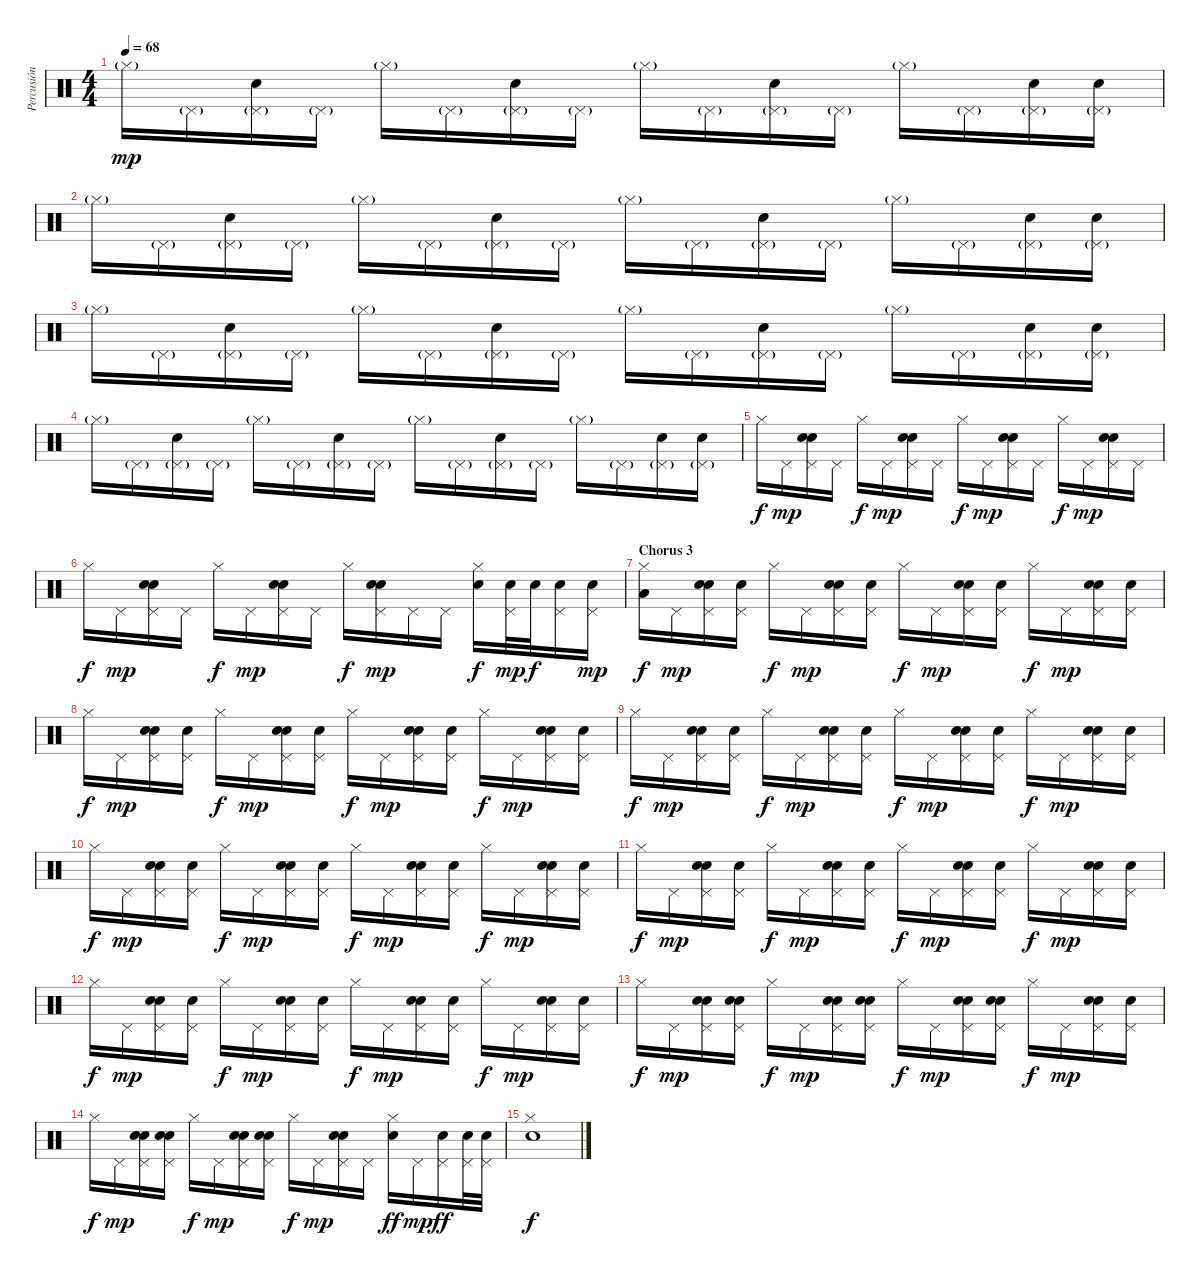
\track ("Percusión" "Percusión") {instrument percussion}
\staff {score}
\articulation defaults
\ts (4 4)
\tempo 68
\clef neutral
\ks c "Hi-Hat (closed)"{g}.16{dy mp} "Pedal Hi-Hat (hit)"{g}.16
("Pedal Hi-Hat (hit)"{g} "Electric Snare (hit)").16 "Pedal Hi-Hat (hit)"{g}.16 "Hi-Hat (closed)"{g}.16 "Pedal Hi-Hat (hit)"{g}.16 ("Pedal Hi-Hat (hit)"{g} "Electric Snare (hit)").16 "Pedal Hi-Hat (hit)"{g}.16 "Hi-Hat (closed)"{g}.16 "Pedal Hi-Hat (hit)"{g}.16 ("Pedal Hi-Hat (hit)"{g} "Electric Snare (hit)").16 "Pedal Hi-Hat (hit)"{g}.16 "Hi-Hat (closed)"{g}.16 "Pedal Hi-Hat (hit)"{g}.16 ("Pedal Hi-Hat (hit)"{g} "Electric Snare (hit)").16 ("Pedal Hi-Hat (hit)"{g} "Electric Snare (hit)").16 |
"Hi-Hat (closed)"{g}.16 "Pedal Hi-Hat (hit)"{g}.16 ("Pedal Hi-Hat (hit)"{g} "Electric Snare (hit)").16 "Pedal Hi-Hat (hit)"{g}.16 "Hi-Hat (closed)"{g}.16 "Pedal Hi-Hat (hit)"{g}.16 ("Pedal Hi-Hat (hit)"{g} "Electric Snare (hit)").16 "Pedal Hi-Hat (hit)"{g}.16 "Hi-Hat (closed)"{g}.16 "Pedal Hi-Hat (hit)"{g}.16 ("Pedal Hi-Hat (hit)"{g} "Electric Snare (hit)").16 "Pedal Hi-Hat (hit)"{g}.16 "Hi-Hat (closed)"{g}.16 "Pedal Hi-Hat (hit)"{g}.16 ("Pedal Hi-Hat (hit)"{g} "Electric Snare (hit)").16 ("Pedal Hi-Hat (hit)"{g} "Electric Snare (hit)").16 |
"Hi-Hat (closed)"{g}.16 "Pedal Hi-Hat (hit)"{g}.16 ("Pedal Hi-Hat (hit)"{g} "Electric Snare (hit)").16 "Pedal Hi-Hat (hit)"{g}.16 "Hi-Hat (closed)"{g}.16 "Pedal Hi-Hat (hit)"{g}.16 ("Pedal Hi-Hat (hit)"{g} "Electric Snare (hit)").16 "Pedal Hi-Hat (hit)"{g}.16 "Hi-Hat (closed)"{g}.16 "Pedal Hi-Hat (hit)"{g}.16 ("Pedal Hi-Hat (hit)"{g} "Electric Snare (hit)").16 "Pedal Hi-Hat (hit)"{g}.16 "Hi-Hat (closed)"{g}.16 "Pedal Hi-Hat (hit)"{g}.16 ("Pedal Hi-Hat (hit)"{g} "Electric Snare (hit)").16 ("Pedal Hi-Hat (hit)"{g} "Electric Snare (hit)").16 |
"Hi-Hat (closed)"{g}.16 "Pedal Hi-Hat (hit)"{g}.16 ("Pedal Hi-Hat (hit)"{g} "Electric Snare (hit)").16 "Pedal Hi-Hat (hit)"{g}.16 "Hi-Hat (closed)"{g}.16 "Pedal Hi-Hat (hit)"{g}.16 ("Pedal Hi-Hat (hit)"{g} "Electric Snare (hit)").16 "Pedal Hi-Hat (hit)"{g}.16 "Hi-Hat (closed)"{g}.16 "Pedal Hi-Hat (hit)"{g}.16 ("Pedal Hi-Hat (hit)"{g} "Electric Snare (hit)").16 "Pedal Hi-Hat (hit)"{g}.16 "Hi-Hat (closed)"{g}.16 "Pedal Hi-Hat (hit)"{g}.16 ("Pedal Hi-Hat (hit)"{g} "Electric Snare (hit)").16 ("Pedal Hi-Hat (hit)"{g} "Electric Snare (hit)").16 |
"Hi-Hat (closed)".16{dy f} "Pedal Hi-Hat (hit)".16{dy mp} ("Pedal Hi-Hat (hit)" "Electric Snare (hit)" "Hand Clap (hit)").16 "Pedal Hi-Hat (hit)".16 "Hi-Hat (closed)".16{dy f} "Pedal Hi-Hat (hit)".16{dy mp} ("Pedal Hi-Hat (hit)" "Electric Snare (hit)" "Hand Clap (hit)").16 "Pedal Hi-Hat (hit)".16 "Hi-Hat (closed)".16{dy f} "Pedal Hi-Hat (hit)".16{dy mp} ("Pedal Hi-Hat (hit)" "Electric Snare (hit)" "Hand Clap (hit)").16 "Pedal Hi-Hat (hit)".16 "Hi-Hat (closed)".16{dy f} "Pedal Hi-Hat (hit)".16{dy mp} ("Pedal Hi-Hat (hit)" "Electric Snare (hit)" "Hand Clap (hit)").16 "Pedal Hi-Hat (hit)".16 |
"Hi-Hat (closed)".16{dy f} "Pedal Hi-Hat (hit)".16{dy mp} ("Pedal Hi-Hat (hit)" "Electric Snare (hit)" "Hand Clap (hit)").16 "Pedal Hi-Hat (hit)".16 "Hi-Hat (closed)".16{dy f} "Pedal Hi-Hat (hit)".16{dy mp} ("Pedal Hi-Hat (hit)" "Electric Snare (hit)" "Hand Clap (hit)").16 "Pedal Hi-Hat (hit)".16 "Hi-Hat (closed)".16{dy f} ("Pedal Hi-Hat (hit)" "Electric Snare (hit)" "Hand Clap (hit)").16{dy mp} "Pedal Hi-Hat (hit)".16 "Pedal Hi-Hat (hit)".16 ("Hi-Hat (closed)" "Electric Snare (hit)").16{dy f} ("Pedal Hi-Hat (hit)" "Electric Snare (hit)").32{dy mp} "Electric Snare (hit)".32{dy f} ("Pedal Hi-Hat (hit)" "Electric Snare (hit)").16 ("Pedal Hi-Hat (hit)" "Electric Snare (hit)").16{dy mp} |
\section ("" "Chorus 3")
("Hi-Hat (closed)" "Low Tom (hit)").16{dy f} "Pedal Hi-Hat (hit)".16{dy mp} ("Pedal Hi-Hat (hit)" "Electric Snare (hit)" "Hand Clap (hit)").16 ("Pedal Hi-Hat (hit)" "Hand Clap (hit)").16 "Hi-Hat (closed)".16{dy f} "Pedal Hi-Hat (hit)".16{dy mp} ("Pedal Hi-Hat (hit)" "Electric Snare (hit)" "Hand Clap (hit)").16 ("Pedal Hi-Hat (hit)" "Hand Clap (hit)").16 "Hi-Hat (closed)".16{dy f} "Pedal Hi-Hat (hit)".16{dy mp} ("Pedal Hi-Hat (hit)" "Electric Snare (hit)" "Hand Clap (hit)").16 ("Pedal Hi-Hat (hit)" "Hand Clap (hit)").16 "Hi-Hat (closed)".16{dy f} "Pedal Hi-Hat (hit)".16{dy mp} ("Pedal Hi-Hat (hit)" "Electric Snare (hit)" "Hand Clap (hit)").16 ("Pedal Hi-Hat (hit)" "Electric Snare (hit)").16 |
"Hi-Hat (closed)".16{dy f} "Pedal Hi-Hat (hit)".16{dy mp} ("Pedal Hi-Hat (hit)" "Electric Snare (hit)" "Hand Clap (hit)").16 ("Pedal Hi-Hat (hit)" "Hand Clap (hit)").16 "Hi-Hat (closed)".16{dy f} "Pedal Hi-Hat (hit)".16{dy mp} ("Pedal Hi-Hat (hit)" "Electric Snare (hit)" "Hand Clap (hit)").16 ("Pedal Hi-Hat (hit)" "Hand Clap (hit)").16 "Hi-Hat (closed)".16{dy f} "Pedal Hi-Hat (hit)".16{dy mp} ("Pedal Hi-Hat (hit)" "Electric Snare (hit)" "Hand Clap (hit)").16 ("Pedal Hi-Hat (hit)" "Hand Clap (hit)").16 "Hi-Hat (closed)".16{dy f} "Pedal Hi-Hat (hit)".16{dy mp} ("Pedal Hi-Hat (hit)" "Electric Snare (hit)" "Hand Clap (hit)").16 ("Pedal Hi-Hat (hit)" "Electric Snare (hit)").16 |
"Hi-Hat (closed)".16{dy f} "Pedal Hi-Hat (hit)".16{dy mp} ("Pedal Hi-Hat (hit)" "Electric Snare (hit)" "Hand Clap (hit)").16 ("Pedal Hi-Hat (hit)" "Hand Clap (hit)").16 "Hi-Hat (closed)".16{dy f} "Pedal Hi-Hat (hit)".16{dy mp} ("Pedal Hi-Hat (hit)" "Electric Snare (hit)" "Hand Clap (hit)").16 ("Pedal Hi-Hat (hit)" "Hand Clap (hit)").16 "Hi-Hat (closed)".16{dy f} "Pedal Hi-Hat (hit)".16{dy mp} ("Pedal Hi-Hat (hit)" "Electric Snare (hit)" "Hand Clap (hit)").16 ("Pedal Hi-Hat (hit)" "Hand Clap (hit)").16 "Hi-Hat (closed)".16{dy f} "Pedal Hi-Hat (hit)".16{dy mp} ("Pedal Hi-Hat (hit)" "Electric Snare (hit)" "Hand Clap (hit)").16 ("Pedal Hi-Hat (hit)" "Electric Snare (hit)").16 |
"Hi-Hat (closed)".16{dy f} "Pedal Hi-Hat (hit)".16{dy mp} ("Pedal Hi-Hat (hit)" "Electric Snare (hit)" "Hand Clap (hit)").16 ("Pedal Hi-Hat (hit)" "Hand Clap (hit)").16 "Hi-Hat (closed)".16{dy f} "Pedal Hi-Hat (hit)".16{dy mp} ("Pedal Hi-Hat (hit)" "Electric Snare (hit)" "Hand Clap (hit)").16 ("Pedal Hi-Hat (hit)" "Hand Clap (hit)").16 "Hi-Hat (closed)".16{dy f} "Pedal Hi-Hat (hit)".16{dy mp} ("Pedal Hi-Hat (hit)" "Electric Snare (hit)" "Hand Clap (hit)").16 ("Pedal Hi-Hat (hit)" "Hand Clap (hit)").16 "Hi-Hat (closed)".16{dy f} "Pedal Hi-Hat (hit)".16{dy mp} ("Pedal Hi-Hat (hit)" "Electric Snare (hit)" "Hand Clap (hit)").16 ("Pedal Hi-Hat (hit)" "Electric Snare (hit)").16 |
"Hi-Hat (closed)".16{dy f} "Pedal Hi-Hat (hit)".16{dy mp} ("Pedal Hi-Hat (hit)" "Electric Snare (hit)" "Hand Clap (hit)").16 ("Pedal Hi-Hat (hit)" "Hand Clap (hit)").16 "Hi-Hat (closed)".16{dy f} "Pedal Hi-Hat (hit)".16{dy mp} ("Pedal Hi-Hat (hit)" "Electric Snare (hit)" "Hand Clap (hit)").16 ("Pedal Hi-Hat (hit)" "Hand Clap (hit)").16 "Hi-Hat (closed)".16{dy f} "Pedal Hi-Hat (hit)".16{dy mp} ("Pedal Hi-Hat (hit)" "Electric Snare (hit)" "Hand Clap (hit)").16 ("Pedal Hi-Hat (hit)" "Hand Clap (hit)").16 "Hi-Hat (closed)".16{dy f} "Pedal Hi-Hat (hit)".16{dy mp} ("Pedal Hi-Hat (hit)" "Electric Snare (hit)" "Hand Clap (hit)").16 ("Pedal Hi-Hat (hit)" "Electric Snare (hit)").16 |
"Hi-Hat (closed)".16{dy f} "Pedal Hi-Hat (hit)".16{dy mp} ("Pedal Hi-Hat (hit)" "Electric Snare (hit)" "Hand Clap (hit)").16 ("Pedal Hi-Hat (hit)" "Hand Clap (hit)").16 "Hi-Hat (closed)".16{dy f} "Pedal Hi-Hat (hit)".16{dy mp} ("Pedal Hi-Hat (hit)" "Electric Snare (hit)" "Hand Clap (hit)").16 ("Pedal Hi-Hat (hit)" "Hand Clap (hit)").16 "Hi-Hat (closed)".16{dy f} "Pedal Hi-Hat (hit)".16{dy mp} ("Pedal Hi-Hat (hit)" "Electric Snare (hit)" "Hand Clap (hit)").16 ("Pedal Hi-Hat (hit)" "Hand Clap (hit)").16 "Hi-Hat (closed)".16{dy f} "Pedal Hi-Hat (hit)".16{dy mp} ("Pedal Hi-Hat (hit)" "Electric Snare (hit)" "Hand Clap (hit)").16 ("Pedal Hi-Hat (hit)" "Electric Snare (hit)").16 |
"Hi-Hat (closed)".16{dy f} "Pedal Hi-Hat (hit)".16{dy mp} ("Pedal Hi-Hat (hit)" "Electric Snare (hit)" "Hand Clap (hit)").16 ("Pedal Hi-Hat (hit)" "Electric Snare (hit)" "Hand Clap (hit)").16 "Hi-Hat (closed)".16{dy f} "Pedal Hi-Hat (hit)".16{dy mp} ("Pedal Hi-Hat (hit)" "Electric Snare (hit)" "Hand Clap (hit)").16 ("Pedal Hi-Hat (hit)" "Electric Snare (hit)" "Hand Clap (hit)").16 "Hi-Hat (closed)".16{dy f} "Pedal Hi-Hat (hit)".16{dy mp} ("Pedal Hi-Hat (hit)" "Electric Snare (hit)" "Hand Clap (hit)").16 ("Pedal Hi-Hat (hit)" "Electric Snare (hit)" "Hand Clap (hit)").16 "Hi-Hat (closed)".16{dy f} "Pedal Hi-Hat (hit)".16{dy mp} ("Pedal Hi-Hat (hit)" "Electric Snare (hit)" "Hand Clap (hit)").16 ("Pedal Hi-Hat (hit)" "Electric Snare (hit)").16 |
"Hi-Hat (closed)".16{dy f} "Pedal Hi-Hat (hit)".16{dy mp} ("Pedal Hi-Hat (hit)" "Electric Snare (hit)" "Hand Clap (hit)").16 ("Pedal Hi-Hat (hit)" "Electric Snare (hit)" "Hand Clap (hit)").16 "Hi-Hat (closed)".16{dy f} "Pedal Hi-Hat (hit)".16{dy mp} ("Pedal Hi-Hat (hit)" "Electric Snare (hit)" "Hand Clap (hit)").16 ("Pedal Hi-Hat (hit)" "Electric Snare (hit)" "Hand Clap (hit)").16 "Hi-Hat (closed)".16{dy f} "Pedal Hi-Hat (hit)".16{dy mp} ("Pedal Hi-Hat (hit)" "Electric Snare (hit)" "Hand Clap (hit)").16 "Pedal Hi-Hat (hit)".16 ("Hi-Hat (closed)" "Electric Snare (hit)").16{dy ff} "Pedal Hi-Hat (hit)".16{dy mp} ("Pedal Hi-Hat (hit)" "Electric Snare (hit)").16{dy ff} ("Pedal Hi-Hat (hit)" "Electric Snare (hit)").32 ("Pedal Hi-Hat (hit)" "Electric Snare (hit)").32 |
("Hi-Hat (closed)" "Electric Snare (hit)").1{dy f}
